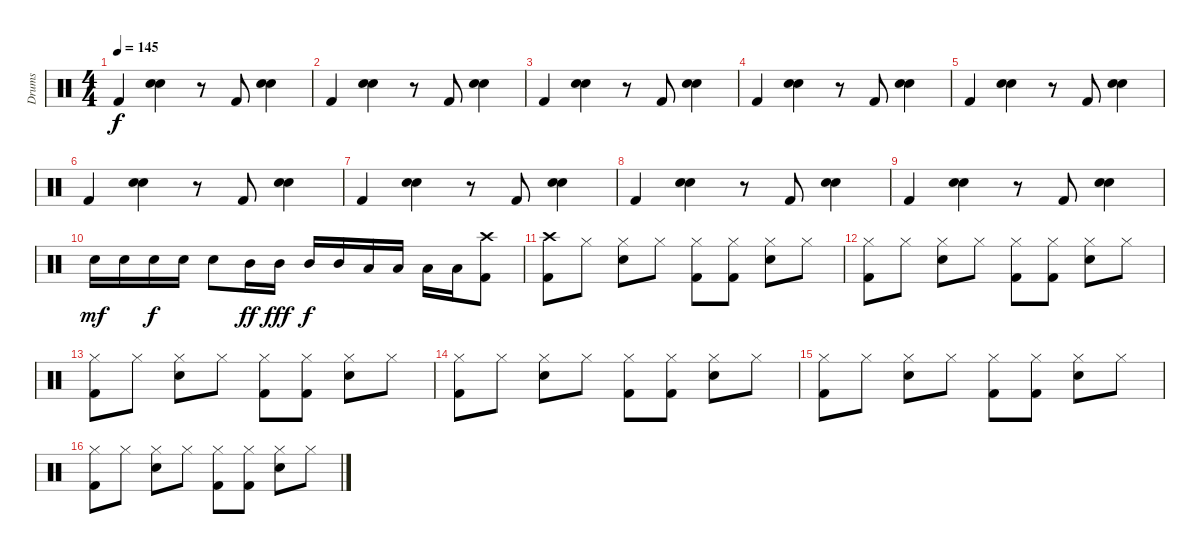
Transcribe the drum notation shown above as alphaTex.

\track ("Drums" "Drums") {instrument percussion}
\staff {score}
\articulation defaults
\ts (4 4)
\tempo 145
\clef neutral
\ks c "Kick (hit) 2".4{dy f}
("Snare (hit) 2" "Electric Snare (hit)").4 r.8 "Kick (hit) 2".8 ("Snare (hit) 2" "Electric Snare (hit)").4 |
"Kick (hit) 2".4 ("Snare (hit) 2" "Electric Snare (hit)").4 r.8 "Kick (hit) 2".8 ("Snare (hit) 2" "Electric Snare (hit)").4 |
"Kick (hit) 2".4 ("Snare (hit) 2" "Electric Snare (hit)").4 r.8 "Kick (hit) 2".8 ("Snare (hit) 2" "Electric Snare (hit)").4 |
"Kick (hit) 2".4 ("Snare (hit) 2" "Electric Snare (hit)").4 r.8 "Kick (hit) 2".8 ("Snare (hit) 2" "Electric Snare (hit)").4 |
"Kick (hit) 2".4 ("Snare (hit) 2" "Electric Snare (hit)").4 r.8 "Kick (hit) 2".8 ("Snare (hit) 2" "Electric Snare (hit)").4 |
"Kick (hit) 2".4 ("Snare (hit) 2" "Electric Snare (hit)").4 r.8 "Kick (hit) 2".8 ("Snare (hit) 2" "Electric Snare (hit)").4 |
"Kick (hit) 2".4 ("Snare (hit) 2" "Electric Snare (hit)").4 r.8 "Kick (hit) 2".8 ("Snare (hit) 2" "Electric Snare (hit)").4 |
"Kick (hit) 2".4 ("Snare (hit) 2" "Electric Snare (hit)").4 r.8 "Kick (hit) 2".8 ("Snare (hit) 2" "Electric Snare (hit)").4 |
"Kick (hit) 2".4 ("Snare (hit) 2" "Electric Snare (hit)").4 r.8 "Kick (hit) 2".8 ("Snare (hit) 2" "Electric Snare (hit)").4 |
"Electric Snare (hit)".16{dy mf} "Electric Snare (hit)".16 "Electric Snare (hit)".16{dy f} "Electric Snare (hit)".16 "Electric Snare (hit)".8 "Mid Tom (hit)".16{dy ff} "Mid Tom (hit)".16{dy fff} "Mid Tom (hit)".16{dy f} "Mid Tom (hit)".16 "Low Tom (hit)".16 "Low Tom (hit)".16 "Low Tom (hit)".16 "Low Floor Tom (hit)".16 ("Crash high (hit)" "Kick (hit) 2").8 |
("Crash high (hit)" "Kick (hit) 2").8 "Hi-Hat (closed)".8 ("Hi-Hat (closed)" "Electric Snare (hit)").8 "Hi-Hat (closed)".8 ("Hi-Hat (closed)" "Kick (hit) 2").8 ("Hi-Hat (closed)" "Kick (hit) 2").8 ("Hi-Hat (closed)" "Electric Snare (hit)").8 "Hi-Hat (closed)".8 |
("Hi-Hat (closed)" "Kick (hit) 2").8 "Hi-Hat (closed)".8 ("Hi-Hat (closed)" "Electric Snare (hit)").8 "Hi-Hat (closed)".8 ("Hi-Hat (closed)" "Kick (hit) 2").8 ("Hi-Hat (closed)" "Kick (hit) 2").8 ("Hi-Hat (closed)" "Electric Snare (hit)").8 "Hi-Hat (closed)".8 |
("Hi-Hat (closed)" "Kick (hit) 2").8 "Hi-Hat (closed)".8 ("Hi-Hat (closed)" "Electric Snare (hit)").8 "Hi-Hat (closed)".8 ("Hi-Hat (closed)" "Kick (hit) 2").8 ("Hi-Hat (closed)" "Kick (hit) 2").8 ("Hi-Hat (closed)" "Electric Snare (hit)").8 "Hi-Hat (closed)".8 |
("Hi-Hat (closed)" "Kick (hit) 2").8 "Hi-Hat (closed)".8 ("Hi-Hat (closed)" "Electric Snare (hit)").8 "Hi-Hat (closed)".8 ("Hi-Hat (closed)" "Kick (hit) 2").8 ("Hi-Hat (closed)" "Kick (hit) 2").8 ("Hi-Hat (closed)" "Electric Snare (hit)").8 "Hi-Hat (closed)".8 |
("Hi-Hat (closed)" "Kick (hit) 2").8 "Hi-Hat (closed)".8 ("Hi-Hat (closed)" "Electric Snare (hit)").8 "Hi-Hat (closed)".8 ("Hi-Hat (closed)" "Kick (hit) 2").8 ("Hi-Hat (closed)" "Kick (hit) 2").8 ("Hi-Hat (closed)" "Electric Snare (hit)").8 "Hi-Hat (closed)".8 |
("Hi-Hat (closed)" "Kick (hit) 2").8 "Hi-Hat (closed)".8 ("Hi-Hat (closed)" "Electric Snare (hit)").8 "Hi-Hat (closed)".8 ("Hi-Hat (closed)" "Kick (hit) 2").8 ("Hi-Hat (closed)" "Kick (hit) 2").8 ("Hi-Hat (closed)" "Electric Snare (hit)").8 "Hi-Hat (closed)".8
